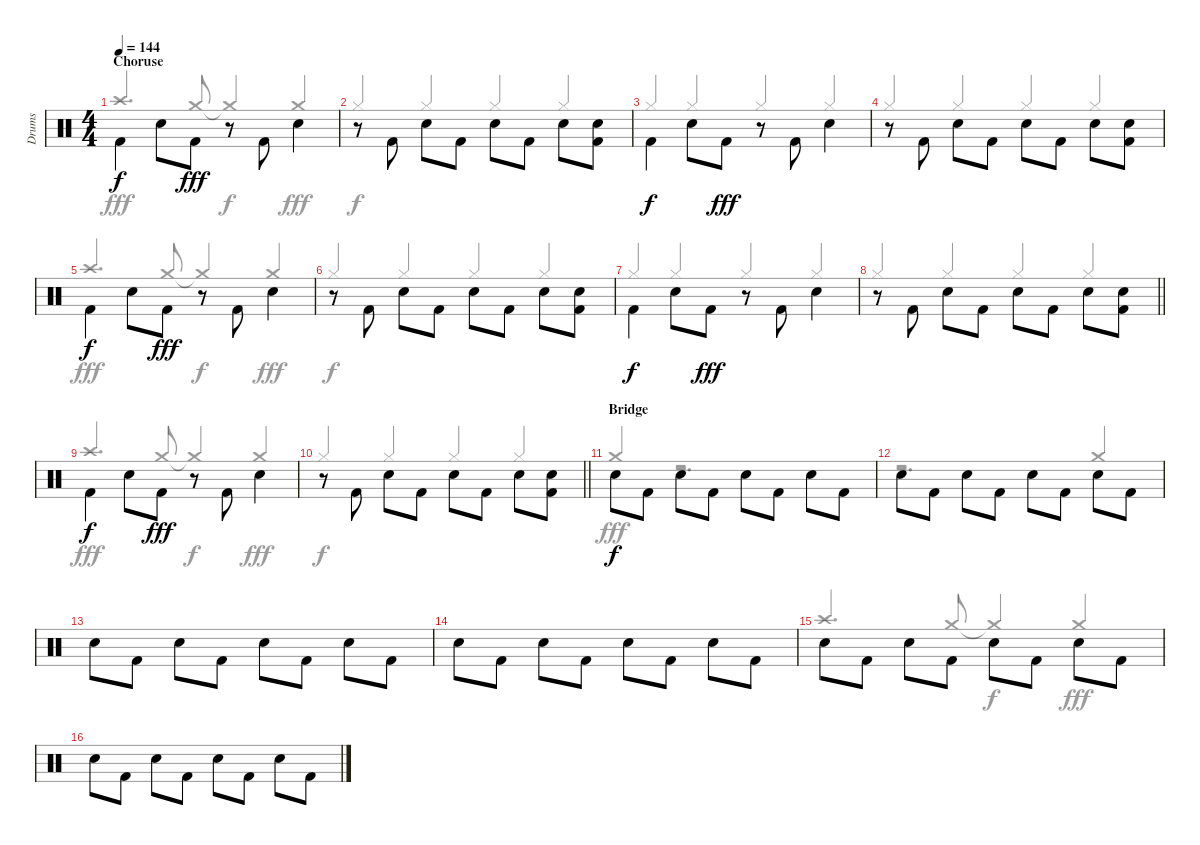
\track ("Drums" "Drums") {instrument percussion}
\staff {score}
\articulation defaults
\voice
\ts (4 4)
\section ("" "Choruse")
\tempo 144
\clef neutral
\ks c "Kick (hit) 2".4{dy f beam Down} "Snare (hit) 2".8{beam Down} "Kick (hit) 2".8{dy fff beam Down}
r.8 "Kick (hit) 2".8{beam Down} "Snare (hit) 2".4{beam Down} |
r.8 "Kick (hit) 2".8{beam Down} "Snare (hit) 2".8{beam Down} "Kick (hit) 2".8{beam Down} "Snare (hit) 2".8{beam Down} "Kick (hit) 2".8{beam Down} "Snare (hit) 2".8{beam Down} ("Snare (hit) 2" "Kick (hit) 2").8{beam Down} |
"Kick (hit) 2".4{dy f beam Down} "Snare (hit) 2".8{beam Down} "Kick (hit) 2".8{dy fff beam Down} r.8 "Kick (hit) 2".8{beam Down} "Snare (hit) 2".4{beam Down} |
r.8 "Kick (hit) 2".8{beam Down} "Snare (hit) 2".8{beam Down} "Kick (hit) 2".8{beam Down} "Snare (hit) 2".8{beam Down} "Kick (hit) 2".8{beam Down} "Snare (hit) 2".8{beam Down} ("Snare (hit) 2" "Kick (hit) 2").8{beam Down} |
"Kick (hit) 2".4{dy f beam Down} "Snare (hit) 2".8{beam Down} "Kick (hit) 2".8{dy fff beam Down} r.8 "Kick (hit) 2".8{beam Down} "Snare (hit) 2".4{beam Down} |
r.8 "Kick (hit) 2".8{beam Down} "Snare (hit) 2".8{beam Down} "Kick (hit) 2".8{beam Down} "Snare (hit) 2".8{beam Down} "Kick (hit) 2".8{beam Down} "Snare (hit) 2".8{beam Down} ("Snare (hit) 2" "Kick (hit) 2").8{beam Down} |
"Kick (hit) 2".4{dy f beam Down} "Snare (hit) 2".8{beam Down} "Kick (hit) 2".8{dy fff beam Down} r.8 "Kick (hit) 2".8{beam Down} "Snare (hit) 2".4{beam Down} |
\barLineRight lightlight
r.8 "Kick (hit) 2".8{beam Down} "Snare (hit) 2".8{beam Down} "Kick (hit) 2".8{beam Down} "Snare (hit) 2".8{beam Down} "Kick (hit) 2".8{beam Down} "Snare (hit) 2".8{beam Down} ("Snare (hit) 2" "Kick (hit) 2").8{beam Down} |
"Kick (hit) 2".4{dy f beam Down} "Snare (hit) 2".8{beam Down} "Kick (hit) 2".8{dy fff beam Down} r.8 "Kick (hit) 2".8{beam Down} "Snare (hit) 2".4{beam Down} |
\barLineRight lightlight
r.8 "Kick (hit) 2".8{beam Down} "Snare (hit) 2".8{beam Down} "Kick (hit) 2".8{beam Down} "Snare (hit) 2".8{beam Down} "Kick (hit) 2".8{beam Down} "Snare (hit) 2".8{beam Down} ("Snare (hit) 2" "Kick (hit) 2").8{beam Down} |
\section ("" "Bridge")
"Snare (hit) 2".8{dy f beam Down} "Kick (hit) 2".8{beam Down} "Snare (hit) 2".8{beam Down} "Kick (hit) 2".8{beam Down} "Snare (hit) 2".8{beam Down} "Kick (hit) 2".8{beam Down} "Snare (hit) 2".8{beam Down} "Kick (hit) 2".8{beam Down} |
"Snare (hit) 2".8{beam Down} "Kick (hit) 2".8{beam Down} "Snare (hit) 2".8{beam Down} "Kick (hit) 2".8{beam Down} "Snare (hit) 2".8{beam Down} "Kick (hit) 2".8{beam Down} "Snare (hit) 2".8{beam Down} "Kick (hit) 2".8{beam Down} |
"Snare (hit) 2".8{beam Down} "Kick (hit) 2".8{beam Down} "Snare (hit) 2".8{beam Down} "Kick (hit) 2".8{beam Down} "Snare (hit) 2".8{beam Down} "Kick (hit) 2".8{beam Down} "Snare (hit) 2".8{beam Down} "Kick (hit) 2".8{beam Down} |
"Snare (hit) 2".8{beam Down} "Kick (hit) 2".8{beam Down} "Snare (hit) 2".8{beam Down} "Kick (hit) 2".8{beam Down} "Snare (hit) 2".8{beam Down} "Kick (hit) 2".8{beam Down} "Snare (hit) 2".8{beam Down} "Kick (hit) 2".8{beam Down} |
"Snare (hit) 2".8{beam Down} "Kick (hit) 2".8{beam Down} "Snare (hit) 2".8{beam Down} "Kick (hit) 2".8{beam Down} "Snare (hit) 2".8{beam Down} "Kick (hit) 2".8{beam Down} "Snare (hit) 2".8{beam Down} "Kick (hit) 2".8{beam Down} |
"Snare (hit) 2".8{beam Down} "Kick (hit) 2".8{beam Down} "Snare (hit) 2".8{beam Down} "Kick (hit) 2".8{beam Down} "Snare (hit) 2".8{beam Down} "Kick (hit) 2".8{beam Down} "Snare (hit) 2".8{beam Down} "Kick (hit) 2".8{beam Down}
\voice
\clef neutral
\ottava regular
\simile none
\ks c "Crash high (hit)".4{d dy fff beam Up} "Crash medium (hit)".8{beam Up} "Crash medium (hit)"{t}.4{dy f beam Up} "Crash medium (hit)".4{dy fff beam Up}
|
"Hi-Hat (closed)".4{dy f beam Up} "Hi-Hat (closed)".4{beam Up} "Hi-Hat (closed)".4{beam Up} "Hi-Hat (closed)".4{beam Up} |
"Hi-Hat (closed)".4{beam Up} "Hi-Hat (closed)".4{beam Up} "Hi-Hat (closed)".4{beam Up} "Hi-Hat (closed)".4{beam Up} |
"Hi-Hat (closed)".4{beam Up} "Hi-Hat (closed)".4{beam Up} "Hi-Hat (closed)".4{beam Up} "Hi-Hat (closed)".4{beam Up} |
"Crash high (hit)".4{d dy fff beam Up} "Crash medium (hit)".8{beam Up} "Crash medium (hit)"{t}.4{dy f beam Up} "Crash medium (hit)".4{dy fff beam Up} |
"Hi-Hat (closed)".4{dy f beam Up} "Hi-Hat (closed)".4{beam Up} "Hi-Hat (closed)".4{beam Up} "Hi-Hat (closed)".4{beam Up} |
"Hi-Hat (closed)".4{beam Up} "Hi-Hat (closed)".4{beam Up} "Hi-Hat (closed)".4{beam Up} "Hi-Hat (closed)".4{beam Up} |
\barLineRight lightlight "Hi-Hat (closed)".4{beam Up} "Hi-Hat (closed)".4{beam Up} "Hi-Hat (closed)".4{beam Up} "Hi-Hat (closed)".4{beam Up}
|
"Crash high (hit)".4{d dy fff beam Up} "Crash medium (hit)".8{beam Up} "Crash medium (hit)"{t}.4{dy f beam Up} "Crash medium (hit)".4{dy fff beam Up} |
\barLineRight lightlight "Hi-Hat (closed)".4{dy f beam Up} "Hi-Hat (closed)".4{beam Up} "Hi-Hat (closed)".4{beam Up} "Hi-Hat (closed)".4{beam Up}
|
"Crash medium (hit)".4{dy fff beam Up} r.2{d} |
r.2{d} "Crash medium (hit)".4{beam Up} |
|
|
"Crash high (hit)".4{d beam Up} "Crash medium (hit)".8{beam Up} "Crash medium (hit)"{t}.4{dy f beam Up} "Crash medium (hit)".4{dy fff beam Up} |
